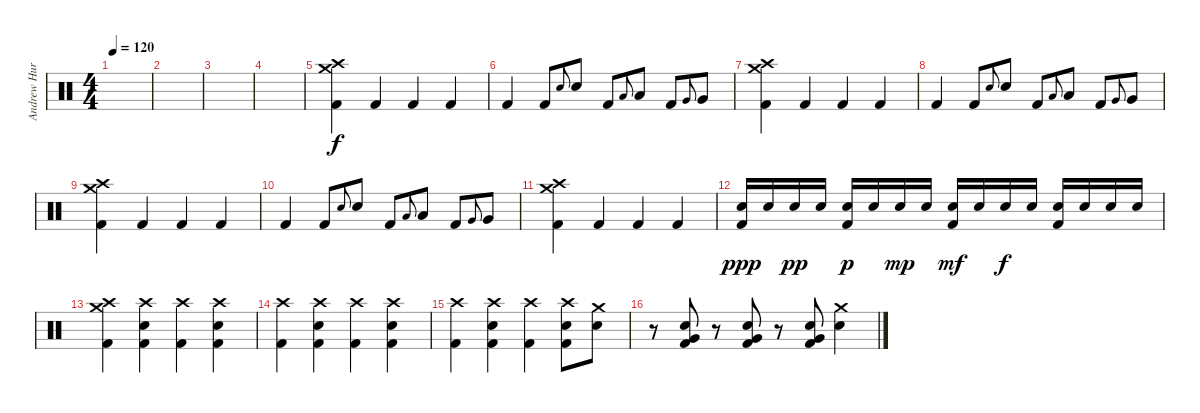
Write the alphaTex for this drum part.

\track ("Andrew Hurley (Drums)" "Andrew Hur") {instrument percussion}
\staff {score}
\articulation defaults
\ts (4 4)
\tempo 120
\clef neutral
\ks c
|
|
|
|
("Crash high (hit)" "Crash medium (hit)" "Kick (hit) 2").4 "Kick (hit) 2".4 "Kick (hit) 2".4 "Kick (hit) 2".4 |
"Kick (hit) 2".4 "Kick (hit) 2".8 "Snare (hit) 2".8{gr onbeat} "Snare (hit) 2".8 "Kick (hit) 2".8 "Low Tom (hit)".8{gr onbeat} "Low Tom (hit)".8 "Kick (hit) 2".8 "Very Low Tom (hit)".8{gr onbeat} "Very Low Tom (hit)".8 |
("Crash high (hit)" "Crash medium (hit)" "Kick (hit) 2").4 "Kick (hit) 2".4 "Kick (hit) 2".4 "Kick (hit) 2".4 |
"Kick (hit) 2".4 "Kick (hit) 2".8 "Snare (hit) 2".8{gr onbeat} "Snare (hit) 2".8 "Kick (hit) 2".8 "Low Tom (hit)".8{gr onbeat} "Low Tom (hit)".8 "Kick (hit) 2".8 "Very Low Tom (hit)".8{gr onbeat} "Very Low Tom (hit)".8 |
("Crash high (hit)" "Crash medium (hit)" "Kick (hit) 2").4 "Kick (hit) 2".4 "Kick (hit) 2".4 "Kick (hit) 2".4 |
"Kick (hit) 2".4 "Kick (hit) 2".8 "Snare (hit) 2".8{gr onbeat} "Snare (hit) 2".8 "Kick (hit) 2".8 "Low Tom (hit)".8{gr onbeat} "Low Tom (hit)".8 "Kick (hit) 2".8 "Very Low Tom (hit)".8{gr onbeat} "Very Low Tom (hit)".8 |
("Crash high (hit)" "Crash medium (hit)" "Kick (hit) 2").4 "Kick (hit) 2".4 "Kick (hit) 2".4 "Kick (hit) 2".4 |
("Snare (hit) 2" "Kick (hit) 2").16{dy ppp} "Snare (hit) 2".16 "Snare (hit) 2".16{dy pp} "Snare (hit) 2".16 ("Snare (hit) 2" "Kick (hit) 2").16{dy p} "Snare (hit) 2".16 "Snare (hit) 2".16{dy mp} "Snare (hit) 2".16 ("Snare (hit) 2" "Kick (hit) 2").16{dy mf} "Snare (hit) 2".16 "Snare (hit) 2".16{dy f} "Snare (hit) 2".16 ("Snare (hit) 2" "Kick (hit) 2").16 "Snare (hit) 2".16 "Snare (hit) 2".16 "Snare (hit) 2".16 |
("Crash high (hit)" "Crash medium (hit)" "Kick (hit) 2").4 ("Crash high (hit)" "Snare (hit) 2" "Kick (hit) 2").4 ("Crash high (hit)" "Kick (hit) 2").4 ("Crash high (hit)" "Snare (hit) 2" "Kick (hit) 2").4 |
("Crash high (hit)" "Kick (hit) 2").4 ("Crash high (hit)" "Snare (hit) 2" "Kick (hit) 2").4 ("Crash high (hit)" "Kick (hit) 2").4 ("Crash high (hit)" "Snare (hit) 2" "Kick (hit) 2").4 |
("Crash high (hit)" "Kick (hit) 2").4 ("Crash high (hit)" "Snare (hit) 2" "Kick (hit) 2").4 ("Crash high (hit)" "Kick (hit) 2").4 ("Crash high (hit)" "Snare (hit) 2" "Kick (hit) 2").8 ("Crash medium (hit)" "Snare (hit) 2").8 |
r.8 ("Very Low Tom (hit)" "Snare (hit) 2" "Kick (hit) 2").8 r.8 ("Very Low Tom (hit)" "Snare (hit) 2" "Kick (hit) 2").8 r.8 ("Very Low Tom (hit)" "Snare (hit) 2" "Kick (hit) 2").8 ("Crash medium (hit)" "Snare (hit) 2").4
